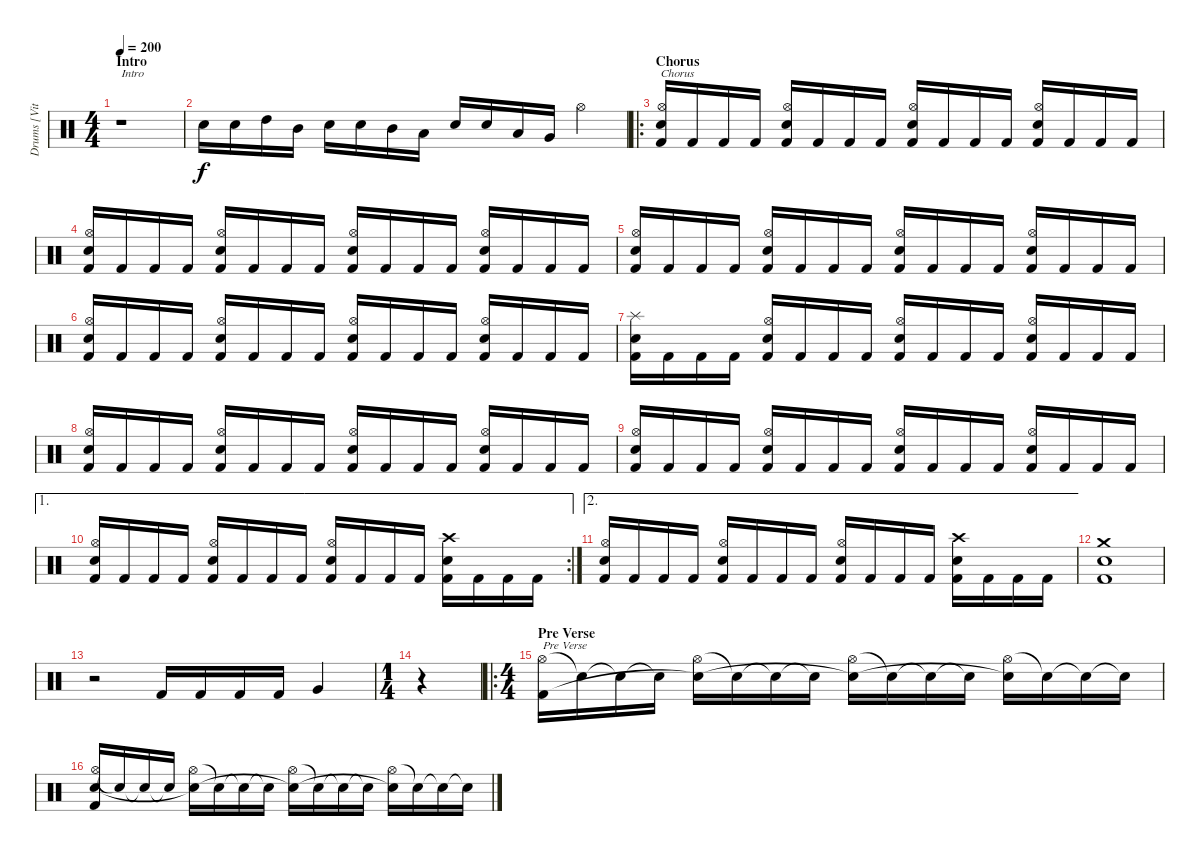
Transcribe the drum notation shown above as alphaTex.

\track ("Drums [Vitek]" "Drums [Vit") {instrument percussion}
\staff {score}
\articulation defaults
\ts (4 4)
\section ("" "Intro")
\tempo 200
\clef neutral
\ks c
r.1{txt "Intro" dy f} |
"Electric Snare (hit)".16 "Electric Snare (hit)".16 "High Tom (hit)".16 "Mid Tom (hit)".16 "Electric Snare (hit)".16 "Electric Snare (hit)".16 "Mid Tom (hit)".16 "Low Tom (hit)".16 "Electric Snare (hit)".16 "Electric Snare (hit)".16 "Low Tom (hit)".16 "Very Low Tom (hit)".16 "Hi-Hat (open)".4 |
\ro
\section ("" "Chorus")
("Hi-Hat (open)" "Electric Snare (hit)" "Kick (hit) 2").16{txt "Chorus"} "Kick (hit) 2".16 "Kick (hit) 2".16 "Kick (hit) 2".16 ("Hi-Hat (open)" "Electric Snare (hit)" "Kick (hit) 2").16 "Kick (hit) 2".16 "Kick (hit) 2".16 "Kick (hit) 2".16 ("Hi-Hat (open)" "Electric Snare (hit)" "Kick (hit) 2").16 "Kick (hit) 2".16 "Kick (hit) 2".16 "Kick (hit) 2".16 ("Hi-Hat (open)" "Electric Snare (hit)" "Kick (hit) 2").16 "Kick (hit) 2".16 "Kick (hit) 2".16 "Kick (hit) 2".16 |
("Hi-Hat (open)" "Electric Snare (hit)" "Kick (hit) 2").16 "Kick (hit) 2".16 "Kick (hit) 2".16 "Kick (hit) 2".16 ("Hi-Hat (open)" "Electric Snare (hit)" "Kick (hit) 2").16 "Kick (hit) 2".16 "Kick (hit) 2".16 "Kick (hit) 2".16 ("Hi-Hat (open)" "Electric Snare (hit)" "Kick (hit) 2").16 "Kick (hit) 2".16 "Kick (hit) 2".16 "Kick (hit) 2".16 ("Hi-Hat (open)" "Electric Snare (hit)" "Kick (hit) 2").16 "Kick (hit) 2".16 "Kick (hit) 2".16 "Kick (hit) 2".16 |
("Hi-Hat (open)" "Electric Snare (hit)" "Kick (hit) 2").16 "Kick (hit) 2".16 "Kick (hit) 2".16 "Kick (hit) 2".16 ("Hi-Hat (open)" "Electric Snare (hit)" "Kick (hit) 2").16 "Kick (hit) 2".16 "Kick (hit) 2".16 "Kick (hit) 2".16 ("Hi-Hat (open)" "Electric Snare (hit)" "Kick (hit) 2").16 "Kick (hit) 2".16 "Kick (hit) 2".16 "Kick (hit) 2".16 ("Hi-Hat (open)" "Electric Snare (hit)" "Kick (hit) 2").16 "Kick (hit) 2".16 "Kick (hit) 2".16 "Kick (hit) 2".16 |
("Hi-Hat (open)" "Electric Snare (hit)" "Kick (hit) 2").16 "Kick (hit) 2".16 "Kick (hit) 2".16 "Kick (hit) 2".16 ("Hi-Hat (open)" "Electric Snare (hit)" "Kick (hit) 2").16 "Kick (hit) 2".16 "Kick (hit) 2".16 "Kick (hit) 2".16 ("Hi-Hat (open)" "Electric Snare (hit)" "Kick (hit) 2").16 "Kick (hit) 2".16 "Kick (hit) 2".16 "Kick (hit) 2".16 ("Hi-Hat (open)" "Electric Snare (hit)" "Kick (hit) 2").16 "Kick (hit) 2".16 "Kick (hit) 2".16 "Kick (hit) 2".16 |
("Splash (hit)" "Electric Snare (hit)" "Kick (hit) 2").16 "Kick (hit) 2".16 "Kick (hit) 2".16 "Kick (hit) 2".16 ("Hi-Hat (open)" "Electric Snare (hit)" "Kick (hit) 2").16 "Kick (hit) 2".16 "Kick (hit) 2".16 "Kick (hit) 2".16 ("Hi-Hat (open)" "Electric Snare (hit)" "Kick (hit) 2").16 "Kick (hit) 2".16 "Kick (hit) 2".16 "Kick (hit) 2".16 ("Hi-Hat (open)" "Electric Snare (hit)" "Kick (hit) 2").16 "Kick (hit) 2".16 "Kick (hit) 2".16 "Kick (hit) 2".16 |
("Hi-Hat (open)" "Electric Snare (hit)" "Kick (hit) 2").16 "Kick (hit) 2".16 "Kick (hit) 2".16 "Kick (hit) 2".16 ("Hi-Hat (open)" "Electric Snare (hit)" "Kick (hit) 2").16 "Kick (hit) 2".16 "Kick (hit) 2".16 "Kick (hit) 2".16 ("Hi-Hat (open)" "Electric Snare (hit)" "Kick (hit) 2").16 "Kick (hit) 2".16 "Kick (hit) 2".16 "Kick (hit) 2".16 ("Hi-Hat (open)" "Electric Snare (hit)" "Kick (hit) 2").16 "Kick (hit) 2".16 "Kick (hit) 2".16 "Kick (hit) 2".16 |
("Hi-Hat (open)" "Electric Snare (hit)" "Kick (hit) 2").16 "Kick (hit) 2".16 "Kick (hit) 2".16 "Kick (hit) 2".16 ("Hi-Hat (open)" "Electric Snare (hit)" "Kick (hit) 2").16 "Kick (hit) 2".16 "Kick (hit) 2".16 "Kick (hit) 2".16 ("Hi-Hat (open)" "Electric Snare (hit)" "Kick (hit) 2").16 "Kick (hit) 2".16 "Kick (hit) 2".16 "Kick (hit) 2".16 ("Hi-Hat (open)" "Electric Snare (hit)" "Kick (hit) 2").16 "Kick (hit) 2".16 "Kick (hit) 2".16 "Kick (hit) 2".16 |
\ae 1
\rc 2
("Hi-Hat (open)" "Electric Snare (hit)" "Kick (hit) 2").16 "Kick (hit) 2".16 "Kick (hit) 2".16 "Kick (hit) 2".16 ("Hi-Hat (open)" "Electric Snare (hit)" "Kick (hit) 2").16 "Kick (hit) 2".16 "Kick (hit) 2".16 "Kick (hit) 2".16 ("Hi-Hat (open)" "Electric Snare (hit)" "Kick (hit) 2").16 "Kick (hit) 2".16 "Kick (hit) 2".16 "Kick (hit) 2".16 ("Crash high (hit)" "Electric Snare (hit)" "Kick (hit) 2").16 "Kick (hit) 2".16 "Kick (hit) 2".16 "Kick (hit) 2".16 |
\ae 2
("Hi-Hat (open)" "Electric Snare (hit)" "Kick (hit) 2").16 "Kick (hit) 2".16 "Kick (hit) 2".16 "Kick (hit) 2".16 ("Hi-Hat (open)" "Electric Snare (hit)" "Kick (hit) 2").16 "Kick (hit) 2".16 "Kick (hit) 2".16 "Kick (hit) 2".16 ("Hi-Hat (open)" "Electric Snare (hit)" "Kick (hit) 2").16 "Kick (hit) 2".16 "Kick (hit) 2".16 "Kick (hit) 2".16 ("Crash high (hit)" "Electric Snare (hit)" "Kick (hit) 2").16 "Kick (hit) 2".16 "Kick (hit) 2".16 "Kick (hit) 2".16 |
("Crash medium (hit)" "Electric Snare (hit)" "Kick (hit) 2").1 |
r.2 "Kick (hit) 2".16 "Kick (hit) 2".16 "Kick (hit) 2".16 "Kick (hit) 2".16 "Very Low Tom (hit)".4 |
\ts (1 4)
r.4 |
\ro
\ts (4 4)
\section ("" "Pre Verse")
("Hi-Hat (open)" "Kick (hit) 2").16{txt "Pre Verse"} "Snare (hit)"{t}.16 "Snare (hit)"{t}.16 "Snare (hit)"{t}.16 ("Hi-Hat (open)" "Snare (hit)"{t}).16 "Snare (hit)"{t}.16 "Snare (hit)"{t}.16 "Snare (hit)"{t}.16 ("Hi-Hat (open)" "Snare (hit)"{t}).16 "Snare (hit)"{t}.16 "Snare (hit)"{t}.16 "Snare (hit)"{t}.16 ("Hi-Hat (open)" "Snare (hit)"{t}).16 "Snare (hit)"{t}.16 "Snare (hit)"{t}.16 "Snare (hit)"{t}.16 |
("Hi-Hat (open)" "Electric Snare (hit)" "Kick (hit) 2").16 "Snare (hit)"{t}.16 "Snare (hit)"{t}.16 "Snare (hit)"{t}.16 ("Hi-Hat (open)" "Snare (hit)"{t}).16 "Snare (hit)"{t}.16 "Snare (hit)"{t}.16 "Snare (hit)"{t}.16 ("Hi-Hat (open)" "Snare (hit)"{t}).16 "Snare (hit)"{t}.16 "Snare (hit)"{t}.16 "Snare (hit)"{t}.16 ("Hi-Hat (open)" "Snare (hit)"{t}).16 "Snare (hit)"{t}.16 "Snare (hit)"{t}.16 "Snare (hit)"{t}.16
